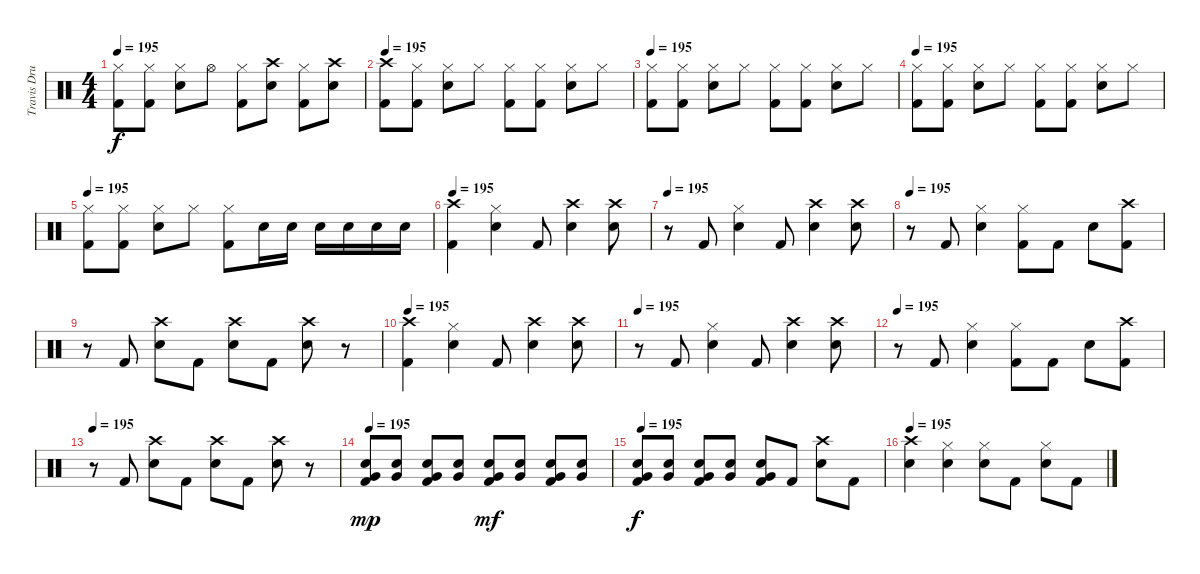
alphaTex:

\track ("Travis Drums" "Travis Dru") {instrument percussion}
\staff {score}
\articulation defaults
\ts (4 4)
\tempo 195
\clef neutral
\ks c
("Hi-Hat (closed)" "Kick (hit) 2").8{dy f} ("Hi-Hat (closed)" "Kick (hit) 2").8 ("Hi-Hat (closed)" "Electric Snare (hit)").8 "Hi-Hat (open)".8 ("Hi-Hat (closed)" "Kick (hit) 2").8 ("Crash high (hit)" "Electric Snare (hit)").8 ("Hi-Hat (closed)" "Kick (hit) 2").8 ("Crash high (hit)" "Electric Snare (hit)").8 |
\tempo 195
("Crash high (hit)" "Kick (hit) 2").8 ("Hi-Hat (closed)" "Kick (hit) 2").8 ("Hi-Hat (closed)" "Electric Snare (hit)").8 "Hi-Hat (closed)".8 ("Hi-Hat (closed)" "Kick (hit) 2").8 ("Hi-Hat (closed)" "Kick (hit) 2").8 ("Hi-Hat (closed)" "Electric Snare (hit)").8 "Hi-Hat (closed)".8 |
\tempo 195
("Hi-Hat (closed)" "Kick (hit) 2").8 ("Hi-Hat (closed)" "Kick (hit) 2").8 ("Hi-Hat (closed)" "Electric Snare (hit)").8 "Hi-Hat (closed)".8 ("Hi-Hat (closed)" "Kick (hit) 2").8 ("Hi-Hat (closed)" "Kick (hit) 2").8 ("Hi-Hat (closed)" "Electric Snare (hit)").8 "Hi-Hat (closed)".8 |
\tempo 195
("Hi-Hat (closed)" "Kick (hit) 2").8 ("Hi-Hat (closed)" "Kick (hit) 2").8 ("Hi-Hat (closed)" "Electric Snare (hit)").8 "Hi-Hat (closed)".8 ("Hi-Hat (closed)" "Kick (hit) 2").8 ("Hi-Hat (closed)" "Kick (hit) 2").8 ("Hi-Hat (closed)" "Electric Snare (hit)").8 "Hi-Hat (closed)".8 |
\tempo 195
("Hi-Hat (closed)" "Kick (hit) 2").8 ("Hi-Hat (closed)" "Kick (hit) 2").8 ("Hi-Hat (closed)" "Electric Snare (hit)").8 "Hi-Hat (closed)".8 ("Hi-Hat (closed)" "Kick (hit) 2").8 "Electric Snare (hit)".16 "Electric Snare (hit)".16 "Electric Snare (hit)".16 "Electric Snare (hit)".16 "Electric Snare (hit)".16 "Electric Snare (hit)".16 |
\tempo 195
("Crash high (hit)" "Kick (hit) 2").4 ("Hi-Hat (closed)" "Electric Snare (hit)").4 "Kick (hit) 2".8 ("Crash high (hit)" "Electric Snare (hit)").4 ("Crash high (hit)" "Electric Snare (hit)").8 |
\tempo 195
r.8 "Kick (hit) 2".8 ("Hi-Hat (closed)" "Electric Snare (hit)").4 "Kick (hit) 2".8 ("Crash high (hit)" "Electric Snare (hit)").4 ("Crash high (hit)" "Electric Snare (hit)").8 |
\tempo 195
r.8 "Kick (hit) 2".8 ("Hi-Hat (closed)" "Electric Snare (hit)").4 ("Hi-Hat (closed)" "Kick (hit) 2").8 "Kick (hit) 2".8 "Electric Snare (hit)".8 ("Crash high (hit)" "Kick (hit) 2").8 |
r.8 "Kick (hit) 2".8 ("Crash high (hit)" "Electric Snare (hit)").8 "Kick (hit) 2".8 ("Crash high (hit)" "Electric Snare (hit)").8 "Kick (hit) 2".8 ("Crash high (hit)" "Electric Snare (hit)").8 r.8 |
\tempo 195
("Crash high (hit)" "Kick (hit) 2").4 ("Hi-Hat (closed)" "Electric Snare (hit)").4 "Kick (hit) 2".8 ("Crash high (hit)" "Electric Snare (hit)").4 ("Crash high (hit)" "Electric Snare (hit)").8 |
\tempo 195
r.8 "Kick (hit) 2".8 ("Hi-Hat (closed)" "Electric Snare (hit)").4 "Kick (hit) 2".8 ("Crash high (hit)" "Electric Snare (hit)").4 ("Crash high (hit)" "Electric Snare (hit)").8 |
\tempo 195
r.8 "Kick (hit) 2".8 ("Hi-Hat (closed)" "Electric Snare (hit)").4 ("Hi-Hat (closed)" "Kick (hit) 2").8 "Kick (hit) 2".8 "Electric Snare (hit)".8 ("Crash high (hit)" "Kick (hit) 2").8 |
\tempo 195
r.8 "Kick (hit) 2".8 ("Crash high (hit)" "Electric Snare (hit)").8 "Kick (hit) 2".8 ("Crash high (hit)" "Electric Snare (hit)").8 "Kick (hit) 2".8 ("Crash high (hit)" "Electric Snare (hit)").8 r.8 |
\tempo 195
("Very Low Tom (hit)" "Electric Snare (hit)" "Kick (hit) 2").8{dy mp} ("Very Low Tom (hit)" "Electric Snare (hit)").8 ("Very Low Tom (hit)" "Electric Snare (hit)" "Kick (hit) 2").8 ("Very Low Tom (hit)" "Electric Snare (hit)").8 ("Very Low Tom (hit)" "Electric Snare (hit)" "Kick (hit) 2").8{dy mf} ("Very Low Tom (hit)" "Electric Snare (hit)").8 ("Very Low Tom (hit)" "Electric Snare (hit)" "Kick (hit) 2").8 ("Very Low Tom (hit)" "Electric Snare (hit)").8 |
\tempo 195
("Very Low Tom (hit)" "Electric Snare (hit)" "Kick (hit) 2").8{dy f} ("Very Low Tom (hit)" "Electric Snare (hit)").8 ("Very Low Tom (hit)" "Electric Snare (hit)" "Kick (hit) 2").8 ("Very Low Tom (hit)" "Electric Snare (hit)").8 ("Very Low Tom (hit)" "Electric Snare (hit)" "Kick (hit) 2").8 "Kick (hit) 2".8 ("Crash high (hit)" "Electric Snare (hit)").8 "Kick (hit) 2".8 |
\tempo 195
("Crash high (hit)" "Electric Snare (hit)").4 ("Hi-Hat (closed)" "Electric Snare (hit)").4 ("Hi-Hat (closed)" "Electric Snare (hit)").8 "Kick (hit) 2".8 ("Hi-Hat (closed)" "Electric Snare (hit)").8 "Kick (hit) 2".8
